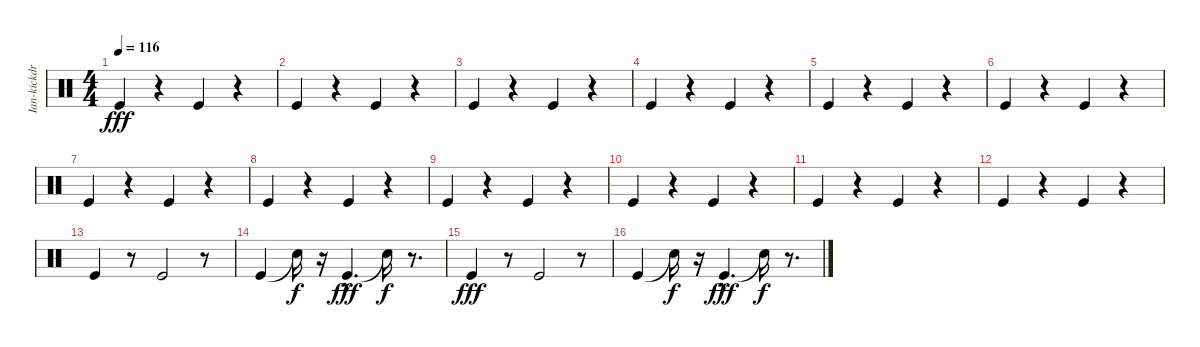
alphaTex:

\track ("Ian-kickdrum" "Ian-kickdr") {instrument percussion}
\staff {score}
\articulation defaults
\ts (4 4)
\tempo 116
\clef neutral
\ks c "Kick (hit)".4{dy fff}
r.4 "Kick (hit)".4 r.4 |
"Kick (hit)".4 r.4 "Kick (hit)".4 r.4 |
"Kick (hit)".4 r.4 "Kick (hit)".4 r.4 |
"Kick (hit)".4 r.4 "Kick (hit)".4 r.4 |
"Kick (hit)".4 r.4 "Kick (hit)".4 r.4 |
"Kick (hit)".4 r.4 "Kick (hit)".4 r.4 |
"Kick (hit)".4 r.4 "Kick (hit)".4 r.4 |
"Kick (hit)".4 r.4 "Kick (hit)".4 r.4 |
"Kick (hit)".4 r.4 "Kick (hit)".4 r.4 |
"Kick (hit)".4 r.4 "Kick (hit)".4 r.4 |
"Kick (hit)".4 r.4 "Kick (hit)".4 r.4 |
"Kick (hit)".4 r.4 "Kick (hit)".4 r.4 |
"Kick (hit)".4 r.8 "Kick (hit)".2 r.8 |
"Kick (hit)".4 "Snare (hit)"{t}.16{dy f} r.16 "Kick (hit)"{hac}.4{d dy fff} "Snare (hit)"{t}.16{dy f} r.8{d} |
"Kick (hit)".4{dy fff} r.8 "Kick (hit)".2 r.8 |
"Kick (hit)".4 "Snare (hit)"{t}.16{dy f} r.16 "Kick (hit)"{hac}.4{d dy fff} "Snare (hit)"{t}.16{dy f} r.8{d}
